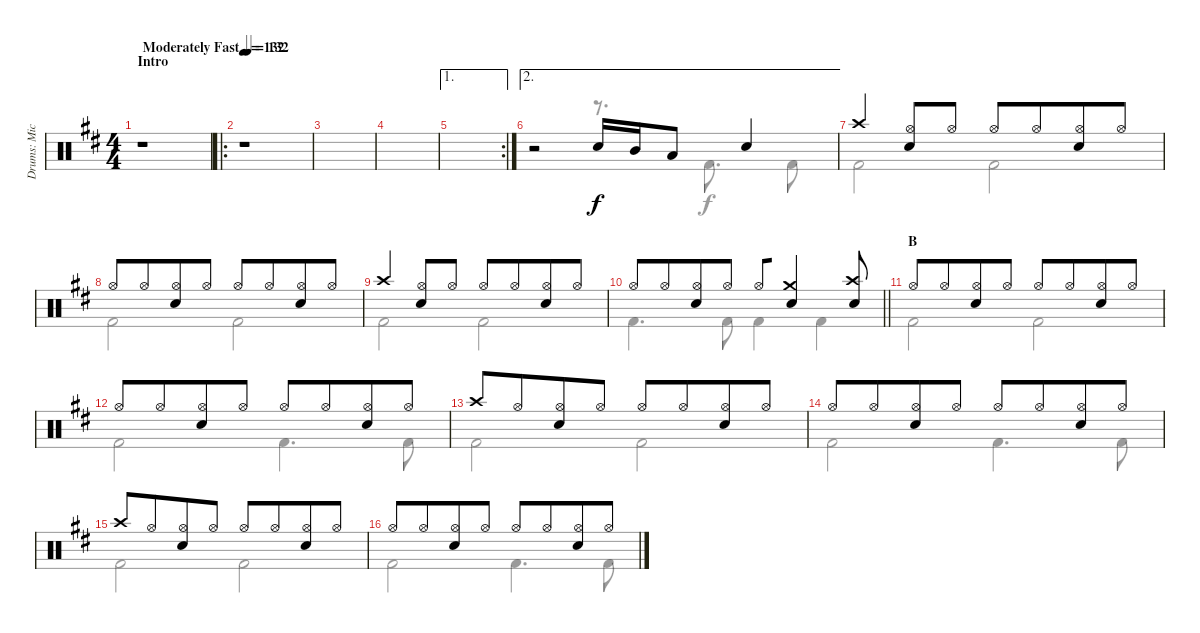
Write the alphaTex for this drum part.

\track ("Drums: Mick" "Drums: Mic") {instrument percussion}
\staff {score}
\articulation defaults
\voice
\ts (4 4)
\section ("" "Intro")
\tempo (132 "Moderately Fast")
\tempo 66
\tempo (132 "Moderately Fast")
\clef neutral
\ks d
r.1{dy f} |
\ro
\tempo 132
r.1 |
|
|
\ae 1
\rc 2
|
\ae 2
r.2 "Electric Snare (hit)".16 "Mid Tom (hit)".16 "Low Tom (hit)".8 "Snare (hit) 2".4 |
"Crash high (hit)".4 ("Hi-Hat (open)" "Snare (hit) 2").8 "Hi-Hat (open)".8 "Hi-Hat (open)".8 "Hi-Hat (open)".8{beam merge} ("Hi-Hat (open)" "Snare (hit) 2").8 "Hi-Hat (open)".8 |
"Hi-Hat (open)".8 "Hi-Hat (open)".8{beam merge} ("Hi-Hat (open)" "Snare (hit) 2").8 "Hi-Hat (open)".8 "Hi-Hat (open)".8 "Hi-Hat (open)".8{beam merge} ("Hi-Hat (open)" "Snare (hit) 2").8 "Hi-Hat (open)".8 |
"Crash high (hit)".4 ("Hi-Hat (open)" "Snare (hit) 2").8 "Hi-Hat (open)".8 "Hi-Hat (open)".8 "Hi-Hat (open)".8{beam merge} ("Hi-Hat (open)" "Snare (hit) 2").8 "Hi-Hat (open)".8 |
\barLineRight lightlight "Hi-Hat (open)".8 "Hi-Hat (open)".8{beam merge}
("Hi-Hat (open)" "Snare (hit) 2").8 "Hi-Hat (open)".8 "Hi-Hat (open)".8{beam merge} ("Crash medium (hit)" "Snare (hit) 2").4 ("Crash high (hit)" "Snare (hit) 2").8 |
\section ("" "B")
"Hi-Hat (open)".8 "Hi-Hat (open)".8{beam merge} ("Hi-Hat (open)" "Snare (hit) 2").8 "Hi-Hat (open)".8 "Hi-Hat (open)".8 "Hi-Hat (open)".8{beam merge} ("Hi-Hat (open)" "Snare (hit) 2").8 "Hi-Hat (open)".8 |
"Hi-Hat (open)".8 "Hi-Hat (open)".8{beam merge} ("Hi-Hat (open)" "Snare (hit) 2").8 "Hi-Hat (open)".8 "Hi-Hat (open)".8 "Hi-Hat (open)".8{beam merge} ("Hi-Hat (open)" "Snare (hit) 2").8 "Hi-Hat (open)".8 |
"Crash high (hit)".8 "Hi-Hat (open)".8{beam merge} ("Hi-Hat (open)" "Snare (hit) 2").8 "Hi-Hat (open)".8 "Hi-Hat (open)".8 "Hi-Hat (open)".8{beam merge} ("Hi-Hat (open)" "Snare (hit) 2").8 "Hi-Hat (open)".8 |
"Hi-Hat (open)".8 "Hi-Hat (open)".8{beam merge} ("Hi-Hat (open)" "Snare (hit) 2").8 "Hi-Hat (open)".8 "Hi-Hat (open)".8 "Hi-Hat (open)".8{beam merge} ("Hi-Hat (open)" "Snare (hit) 2").8 "Hi-Hat (open)".8 |
"Crash high (hit)".8 "Hi-Hat (open)".8{beam merge} ("Hi-Hat (open)" "Snare (hit) 2").8 "Hi-Hat (open)".8 "Hi-Hat (open)".8 "Hi-Hat (open)".8{beam merge} ("Hi-Hat (open)" "Snare (hit) 2").8 "Hi-Hat (open)".8 |
"Hi-Hat (open)".8 "Hi-Hat (open)".8{beam merge} ("Hi-Hat (open)" "Snare (hit) 2").8 "Hi-Hat (open)".8 "Hi-Hat (open)".8 "Hi-Hat (open)".8{beam merge} ("Hi-Hat (open)" "Snare (hit) 2").8 "Hi-Hat (open)".8
\voice
\clef neutral
\ottava regular
\simile none
\ks d
|
|
|
|
|
r.2 r.8{d} "Kick (hit) 2".8{d} "Kick (hit) 2".8 |
"Kick (hit) 2".2 "Kick (hit) 2".2 |
"Kick (hit) 2".2 "Kick (hit) 2".2 |
"Kick (hit) 2".2 "Kick (hit) 2".2 |
\barLineRight lightlight "Kick (hit) 2".4{d} "Kick (hit) 2".8 "Kick (hit) 2".4 "Kick (hit) 2".4
|
"Kick (hit) 2".2 "Kick (hit) 2".2 |
"Kick (hit) 2".2 "Kick (hit) 2".4{d} "Kick (hit) 2".8 |
"Kick (hit) 2".2 "Kick (hit) 2".2 |
"Kick (hit) 2".2 "Kick (hit) 2".4{d} "Kick (hit) 2".8 |
"Kick (hit) 2".2 "Kick (hit) 2".2 |
"Kick (hit) 2".2 "Kick (hit) 2".4{d} "Kick (hit) 2".8
